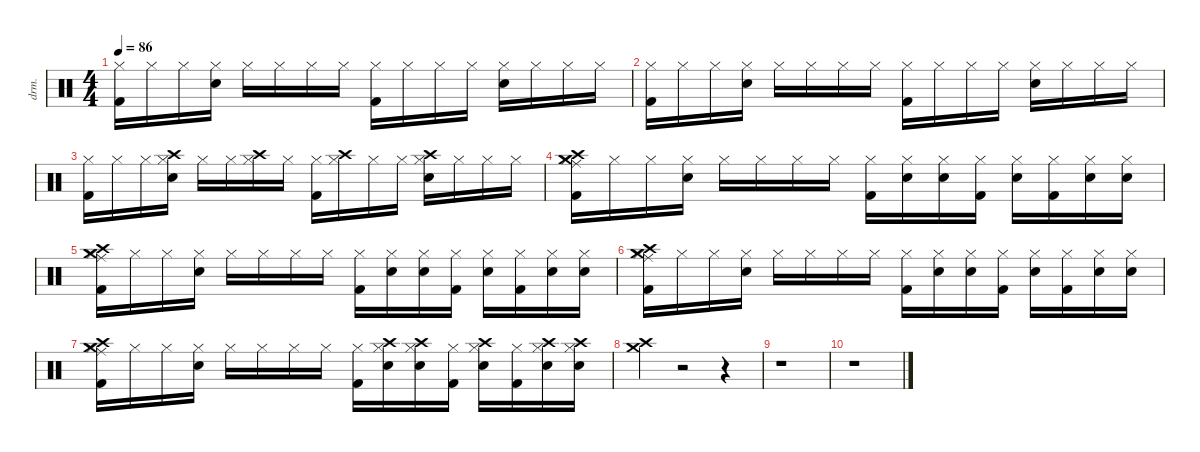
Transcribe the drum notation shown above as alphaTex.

\defaultSystemsLayout 4
\hideDynamics
\bracketExtendMode nobrackets
\otherSystemsTrackNameOrientation horizontal
\track ("Drums" "drm.") {instrument percussion}
\staff {score}
\articulation defaults
\ts (4 4)
\tempo 86
\clef neutral
\ks c
("Hi-Hat (closed)" "Kick (hit) 2").16{dy mf beam Down} "Hi-Hat (closed)".16{beam Down} "Hi-Hat (closed)".16{beam Down} ("Hi-Hat (closed)" "Snare (hit) 2").16{beam Down} "Hi-Hat (closed)".16{beam Down} "Hi-Hat (closed)".16{beam Down} "Hi-Hat (closed)".16{beam Down} "Hi-Hat (closed)".16{beam Down} ("Hi-Hat (closed)" "Kick (hit) 2").16{beam Down} "Hi-Hat (closed)".16{beam Down} "Hi-Hat (closed)".16{beam Down} "Hi-Hat (closed)".16{beam Down} ("Hi-Hat (closed)" "Snare (hit) 2").16{beam Down} "Hi-Hat (closed)".16{beam Down} "Hi-Hat (closed)".16{beam Down} "Hi-Hat (closed)".16{beam Down} |
("Hi-Hat (closed)" "Kick (hit) 2").16{beam Down} "Hi-Hat (closed)".16{beam Down} "Hi-Hat (closed)".16{beam Down} ("Hi-Hat (closed)" "Snare (hit) 2").16{beam Down} "Hi-Hat (closed)".16{beam Down} "Hi-Hat (closed)".16{beam Down} "Hi-Hat (closed)".16{beam Down} "Hi-Hat (closed)".16{beam Down} ("Hi-Hat (closed)" "Kick (hit) 2").16{beam Down} "Hi-Hat (closed)".16{beam Down} "Hi-Hat (closed)".16{beam Down} "Hi-Hat (closed)".16{beam Down} ("Hi-Hat (closed)" "Snare (hit) 2").16{beam Down} "Hi-Hat (closed)".16{beam Down} "Hi-Hat (closed)".16{beam Down} "Hi-Hat (closed)".16{beam Down} |
("Hi-Hat (closed)" "Kick (hit) 2").16{beam Down} "Hi-Hat (closed)".16{beam Down} "Hi-Hat (closed)".16{beam Down} ("Hi-Hat (closed)" "Snare (hit) 2" "Crash high (hit)").16{beam Down} "Hi-Hat (closed)".16{beam Down} "Hi-Hat (closed)".16{beam Down} ("Hi-Hat (closed)" "Crash high (hit)").16{beam Down} "Hi-Hat (closed)".16{beam Down} ("Hi-Hat (closed)" "Kick (hit) 2").16{beam Down} ("Hi-Hat (closed)" "Crash high (hit)").16{beam Down} "Hi-Hat (closed)".16{beam Down} "Hi-Hat (closed)".16{beam Down} ("Hi-Hat (closed)" "Snare (hit) 2" "Crash high (hit)").16{beam Down} "Hi-Hat (closed)".16{beam Down} "Hi-Hat (closed)".16{beam Down} "Hi-Hat (closed)".16{beam Down} |
("Hi-Hat (closed)" "Crash high (hit)" "Ride (middle)" "Crash medium (hit)" "Kick (hit) 2").16{beam Down} "Hi-Hat (closed)".16{beam Down} "Hi-Hat (closed)".16{beam Down} ("Hi-Hat (closed)" "Snare (hit) 2").16{beam Down} "Hi-Hat (closed)".16{beam Down} "Hi-Hat (closed)".16{beam Down} "Hi-Hat (closed)".16{beam Down} "Hi-Hat (closed)".16{beam Down} ("Hi-Hat (closed)" "Kick (hit) 2").16{beam Down} ("Hi-Hat (closed)" "Snare (hit) 2").16{beam Down} ("Hi-Hat (closed)" "Snare (hit) 2").16{beam Down} ("Hi-Hat (closed)" "Kick (hit) 2").16{beam Down} ("Hi-Hat (closed)" "Snare (hit) 2").16{beam Down} ("Hi-Hat (closed)" "Kick (hit) 2").16{beam Down} ("Hi-Hat (closed)" "Snare (hit) 2").16{beam Down} ("Hi-Hat (closed)" "Snare (hit) 2").16{beam Down} |
("Hi-Hat (closed)" "Crash high (hit)" "Ride (middle)" "Crash medium (hit)" "Kick (hit) 2").16{beam Down} "Hi-Hat (closed)".16{beam Down} "Hi-Hat (closed)".16{beam Down} ("Hi-Hat (closed)" "Snare (hit) 2").16{beam Down} "Hi-Hat (closed)".16{beam Down} "Hi-Hat (closed)".16{beam Down} "Hi-Hat (closed)".16{beam Down} "Hi-Hat (closed)".16{beam Down} ("Hi-Hat (closed)" "Kick (hit) 2").16{beam Down} ("Hi-Hat (closed)" "Snare (hit) 2").16{beam Down} ("Hi-Hat (closed)" "Snare (hit) 2").16{beam Down} ("Hi-Hat (closed)" "Kick (hit) 2").16{beam Down} ("Hi-Hat (closed)" "Snare (hit) 2").16{beam Down} ("Hi-Hat (closed)" "Kick (hit) 2").16{beam Down} ("Hi-Hat (closed)" "Snare (hit) 2").16{beam Down} ("Hi-Hat (closed)" "Snare (hit) 2").16{beam Down} |
("Hi-Hat (closed)" "Crash high (hit)" "Ride (middle)" "Crash medium (hit)" "Kick (hit) 2").16{beam Down} "Hi-Hat (closed)".16{beam Down} "Hi-Hat (closed)".16{beam Down} ("Hi-Hat (closed)" "Snare (hit) 2").16{beam Down} "Hi-Hat (closed)".16{beam Down} "Hi-Hat (closed)".16{beam Down} "Hi-Hat (closed)".16{beam Down} "Hi-Hat (closed)".16{beam Down} ("Hi-Hat (closed)" "Kick (hit) 2").16{beam Down} ("Hi-Hat (closed)" "Snare (hit) 2").16{beam Down} ("Hi-Hat (closed)" "Snare (hit) 2").16{beam Down} ("Hi-Hat (closed)" "Kick (hit) 2").16{beam Down} ("Hi-Hat (closed)" "Snare (hit) 2").16{beam Down} ("Hi-Hat (closed)" "Kick (hit) 2").16{beam Down} ("Hi-Hat (closed)" "Snare (hit) 2").16{beam Down} ("Hi-Hat (closed)" "Snare (hit) 2").16{beam Down} |
("Hi-Hat (closed)" "Crash high (hit)" "Ride (middle)" "Crash medium (hit)" "Kick (hit) 2").16{beam Down} "Hi-Hat (closed)".16{beam Down} "Hi-Hat (closed)".16{beam Down} ("Hi-Hat (closed)" "Snare (hit) 2").16{beam Down} "Hi-Hat (closed)".16{beam Down} "Hi-Hat (closed)".16{beam Down} "Hi-Hat (closed)".16{beam Down} "Hi-Hat (closed)".16{beam Down} ("Hi-Hat (closed)" "Kick (hit) 2").16{beam Down} ("Hi-Hat (closed)" "Snare (hit) 2" "Crash high (hit)").16{beam Down} ("Hi-Hat (closed)" "Snare (hit) 2" "Crash high (hit)").16{beam Down} ("Hi-Hat (closed)" "Kick (hit) 2").16{beam Down} ("Hi-Hat (closed)" "Snare (hit) 2" "Crash high (hit)").16{beam Down} ("Hi-Hat (closed)" "Kick (hit) 2").16{beam Down} ("Hi-Hat (closed)" "Snare (hit) 2" "Crash high (hit)").16{beam Down} ("Hi-Hat (closed)" "Snare (hit) 2" "Crash high (hit)").16{beam Down} |
("Crash high (hit)" "Crash medium (hit)").4{dy f beam Down} r.2{beam Down} r.4{beam Down} |
r.1{beam Down} |
r.1{beam Down}
